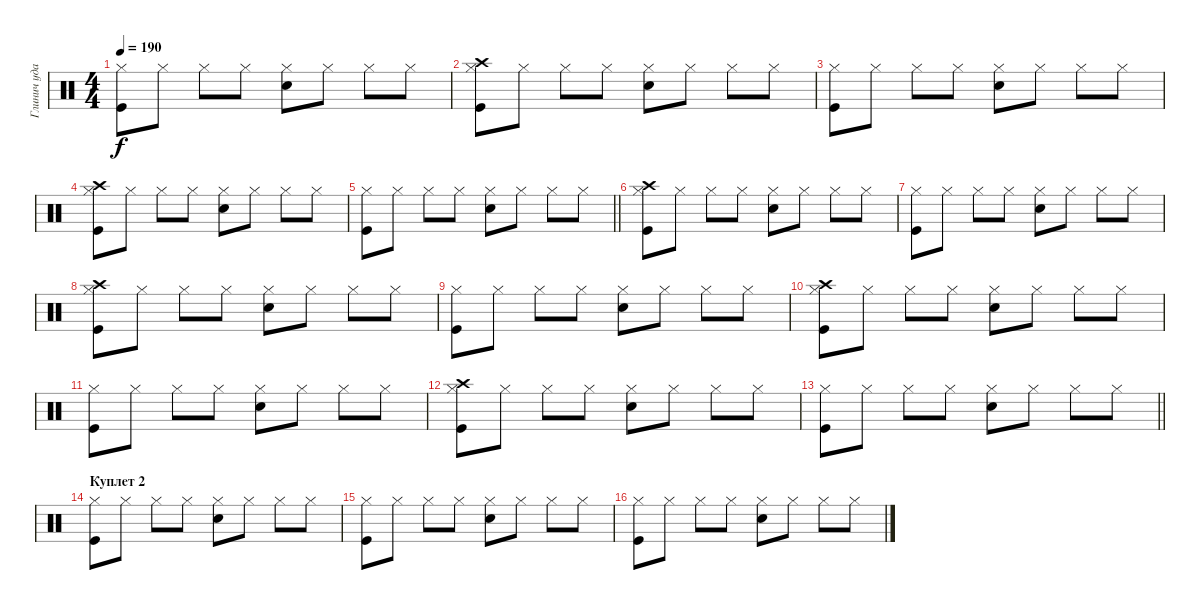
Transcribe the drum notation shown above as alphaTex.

\track ("Глинич ударные" "Глинич уда") {instrument percussion}
\staff {score}
\articulation defaults
\ts (4 4)
\tempo 190
\clef neutral
\ks c
("Hi-Hat (closed)" "Kick (hit)").8{dy f} "Hi-Hat (closed)".8 "Hi-Hat (closed)".8 "Hi-Hat (closed)".8 ("Hi-Hat (closed)" "Snare (hit) 2").8 "Hi-Hat (closed)".8 "Hi-Hat (closed)".8 "Hi-Hat (closed)".8 |
("Hi-Hat (closed)" "Kick (hit)" "Crash high (hit)").8 "Hi-Hat (closed)".8 "Hi-Hat (closed)".8 "Hi-Hat (closed)".8 ("Hi-Hat (closed)" "Snare (hit) 2").8 "Hi-Hat (closed)".8 "Hi-Hat (closed)".8 "Hi-Hat (closed)".8 |
("Hi-Hat (closed)" "Kick (hit)").8 "Hi-Hat (closed)".8 "Hi-Hat (closed)".8 "Hi-Hat (closed)".8 ("Hi-Hat (closed)" "Snare (hit) 2").8 "Hi-Hat (closed)".8 "Hi-Hat (closed)".8 "Hi-Hat (closed)".8 |
("Hi-Hat (closed)" "Kick (hit)" "Crash high (hit)").8 "Hi-Hat (closed)".8 "Hi-Hat (closed)".8 "Hi-Hat (closed)".8 ("Hi-Hat (closed)" "Snare (hit) 2").8 "Hi-Hat (closed)".8 "Hi-Hat (closed)".8 "Hi-Hat (closed)".8 |
\barLineRight lightlight
("Hi-Hat (closed)" "Kick (hit)").8 "Hi-Hat (closed)".8 "Hi-Hat (closed)".8 "Hi-Hat (closed)".8 ("Hi-Hat (closed)" "Snare (hit) 2").8 "Hi-Hat (closed)".8 "Hi-Hat (closed)".8 "Hi-Hat (closed)".8 |
("Hi-Hat (closed)" "Kick (hit)" "Crash high (hit)").8 "Hi-Hat (closed)".8 "Hi-Hat (closed)".8 "Hi-Hat (closed)".8 ("Hi-Hat (closed)" "Snare (hit) 2").8 "Hi-Hat (closed)".8 "Hi-Hat (closed)".8 "Hi-Hat (closed)".8 |
("Hi-Hat (closed)" "Kick (hit)").8 "Hi-Hat (closed)".8 "Hi-Hat (closed)".8 "Hi-Hat (closed)".8 ("Hi-Hat (closed)" "Snare (hit) 2").8 "Hi-Hat (closed)".8 "Hi-Hat (closed)".8 "Hi-Hat (closed)".8 |
("Hi-Hat (closed)" "Kick (hit)" "Crash high (hit)").8 "Hi-Hat (closed)".8 "Hi-Hat (closed)".8 "Hi-Hat (closed)".8 ("Hi-Hat (closed)" "Snare (hit) 2").8 "Hi-Hat (closed)".8 "Hi-Hat (closed)".8 "Hi-Hat (closed)".8 |
("Hi-Hat (closed)" "Kick (hit)").8 "Hi-Hat (closed)".8 "Hi-Hat (closed)".8 "Hi-Hat (closed)".8 ("Hi-Hat (closed)" "Snare (hit) 2").8 "Hi-Hat (closed)".8 "Hi-Hat (closed)".8 "Hi-Hat (closed)".8 |
("Hi-Hat (closed)" "Kick (hit)" "Crash high (hit)").8 "Hi-Hat (closed)".8 "Hi-Hat (closed)".8 "Hi-Hat (closed)".8 ("Hi-Hat (closed)" "Snare (hit) 2").8 "Hi-Hat (closed)".8 "Hi-Hat (closed)".8 "Hi-Hat (closed)".8 |
("Hi-Hat (closed)" "Kick (hit)").8 "Hi-Hat (closed)".8 "Hi-Hat (closed)".8 "Hi-Hat (closed)".8 ("Hi-Hat (closed)" "Snare (hit) 2").8 "Hi-Hat (closed)".8 "Hi-Hat (closed)".8 "Hi-Hat (closed)".8 |
("Hi-Hat (closed)" "Kick (hit)" "Crash high (hit)").8 "Hi-Hat (closed)".8 "Hi-Hat (closed)".8 "Hi-Hat (closed)".8 ("Hi-Hat (closed)" "Snare (hit) 2").8 "Hi-Hat (closed)".8 "Hi-Hat (closed)".8 "Hi-Hat (closed)".8 |
\barLineRight lightlight
("Hi-Hat (closed)" "Kick (hit)").8 "Hi-Hat (closed)".8 "Hi-Hat (closed)".8 "Hi-Hat (closed)".8 ("Hi-Hat (closed)" "Snare (hit) 2").8 "Hi-Hat (closed)".8 "Hi-Hat (closed)".8 "Hi-Hat (closed)".8 |
\section ("" "Куплет 2")
("Hi-Hat (closed)" "Kick (hit)").8 "Hi-Hat (closed)".8 "Hi-Hat (closed)".8 "Hi-Hat (closed)".8 ("Hi-Hat (closed)" "Snare (hit) 2").8 "Hi-Hat (closed)".8 "Hi-Hat (closed)".8 "Hi-Hat (closed)".8 |
("Hi-Hat (closed)" "Kick (hit)").8 "Hi-Hat (closed)".8 "Hi-Hat (closed)".8 "Hi-Hat (closed)".8 ("Hi-Hat (closed)" "Snare (hit) 2").8 "Hi-Hat (closed)".8 "Hi-Hat (closed)".8 "Hi-Hat (closed)".8 |
("Hi-Hat (closed)" "Kick (hit)").8 "Hi-Hat (closed)".8 "Hi-Hat (closed)".8 "Hi-Hat (closed)".8 ("Hi-Hat (closed)" "Snare (hit) 2").8 "Hi-Hat (closed)".8 "Hi-Hat (closed)".8 "Hi-Hat (closed)".8
